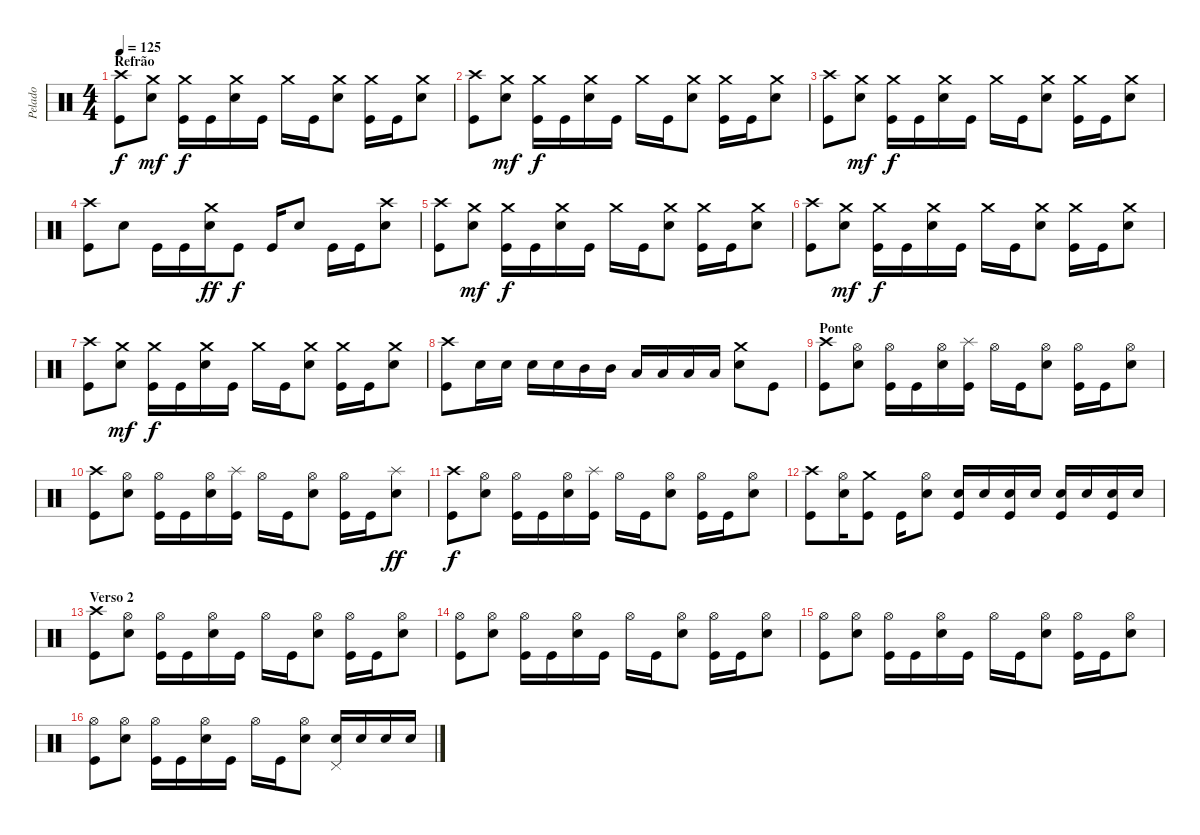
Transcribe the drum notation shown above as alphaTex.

\track ("Pelado" "Pelado") {instrument percussion}
\staff {score}
\articulation defaults
\ts (4 4)
\section ("" "Refrão")
\tempo 125
\clef neutral
\ks c
("Crash high (hit)" "Kick (hit)").8{dy f} ("Crash medium (hit)" "Electric Snare (hit)").8{dy mf} ("Crash medium (hit)" "Kick (hit)").16{dy f} "Kick (hit)".16 ("Crash medium (hit)" "Electric Snare (hit)").16 "Kick (hit)".16 "Crash medium (hit)".16 "Kick (hit)".16 ("Crash medium (hit)" "Electric Snare (hit)").8 ("Crash medium (hit)" "Kick (hit)").16 "Kick (hit)".16 ("Crash medium (hit)" "Electric Snare (hit)").8 |
("Crash high (hit)" "Kick (hit)").8 ("Crash medium (hit)" "Electric Snare (hit)").8{dy mf} ("Crash medium (hit)" "Kick (hit)").16{dy f} "Kick (hit)".16 ("Crash medium (hit)" "Electric Snare (hit)").16 "Kick (hit)".16 "Crash medium (hit)".16 "Kick (hit)".16 ("Crash medium (hit)" "Electric Snare (hit)").8 ("Crash medium (hit)" "Kick (hit)").16 "Kick (hit)".16 ("Crash medium (hit)" "Electric Snare (hit)").8 |
("Crash high (hit)" "Kick (hit)").8 ("Crash medium (hit)" "Electric Snare (hit)").8{dy mf} ("Crash medium (hit)" "Kick (hit)").16{dy f} "Kick (hit)".16 ("Crash medium (hit)" "Electric Snare (hit)").16 "Kick (hit)".16 "Crash medium (hit)".16 "Kick (hit)".16 ("Crash medium (hit)" "Electric Snare (hit)").8 ("Crash medium (hit)" "Kick (hit)").16 "Kick (hit)".16 ("Crash medium (hit)" "Electric Snare (hit)").8 |
("Crash high (hit)" "Kick (hit)").8 "Electric Snare (hit)".8 "Kick (hit)".16 "Kick (hit)".16 ("Crash medium (hit)" "Electric Snare (hit)").16{dy ff} "Kick (hit)".8{dy f} "Kick (hit)".16 "Electric Snare (hit)".8 "Kick (hit)".16 "Kick (hit)".16 ("Crash high (hit)" "Electric Snare (hit)").8 |
("Crash high (hit)" "Kick (hit)").8 ("Crash medium (hit)" "Electric Snare (hit)").8{dy mf} ("Crash medium (hit)" "Kick (hit)").16{dy f} "Kick (hit)".16 ("Crash medium (hit)" "Electric Snare (hit)").16 "Kick (hit)".16 "Crash medium (hit)".16 "Kick (hit)".16 ("Crash medium (hit)" "Electric Snare (hit)").8 ("Crash medium (hit)" "Kick (hit)").16 "Kick (hit)".16 ("Crash medium (hit)" "Electric Snare (hit)").8 |
("Crash high (hit)" "Kick (hit)").8 ("Crash medium (hit)" "Electric Snare (hit)").8{dy mf} ("Crash medium (hit)" "Kick (hit)").16{dy f} "Kick (hit)".16 ("Crash medium (hit)" "Electric Snare (hit)").16 "Kick (hit)".16 "Crash medium (hit)".16 "Kick (hit)".16 ("Crash medium (hit)" "Electric Snare (hit)").8 ("Crash medium (hit)" "Kick (hit)").16 "Kick (hit)".16 ("Crash medium (hit)" "Electric Snare (hit)").8 |
("Crash high (hit)" "Kick (hit)").8 ("Crash medium (hit)" "Electric Snare (hit)").8{dy mf} ("Crash medium (hit)" "Kick (hit)").16{dy f} "Kick (hit)".16 ("Crash medium (hit)" "Electric Snare (hit)").16 "Kick (hit)".16 "Crash medium (hit)".16 "Kick (hit)".16 ("Crash medium (hit)" "Electric Snare (hit)").8 ("Crash medium (hit)" "Kick (hit)").16 "Kick (hit)".16 ("Crash medium (hit)" "Electric Snare (hit)").8 |
("Crash high (hit)" "Kick (hit)").8 "Electric Snare (hit)".16 "Electric Snare (hit)".16 "Electric Snare (hit)".16 "Electric Snare (hit)".16 "Mid Tom (hit)".16 "Mid Tom (hit)".16 "Low Tom (hit)".16 "Low Tom (hit)".16 "Low Tom (hit)".16 "Low Tom (hit)".16 ("Crash medium (hit)" "Electric Snare (hit)").8 "Kick (hit)".8 |
\section ("" "Ponte")
("Crash high (hit)" "Kick (hit)").8 ("Hi-Hat (open)" "Electric Snare (hit)").8 ("Hi-Hat (open)" "Kick (hit)").16 "Kick (hit)".16 ("Hi-Hat (open)" "Electric Snare (hit)").16 ("Splash (hit)" "Kick (hit)").16 "Hi-Hat (open)".16 "Kick (hit)".16 ("Hi-Hat (open)" "Electric Snare (hit)").8 ("Hi-Hat (open)" "Kick (hit)").16 "Kick (hit)".16 ("Hi-Hat (open)" "Electric Snare (hit)").8 |
("Crash high (hit)" "Kick (hit)").8 ("Hi-Hat (open)" "Electric Snare (hit)").8 ("Hi-Hat (open)" "Kick (hit)").16 "Kick (hit)".16 ("Hi-Hat (open)" "Electric Snare (hit)").16 ("Splash (hit)" "Kick (hit)").16 "Hi-Hat (open)".16 "Kick (hit)".16 ("Hi-Hat (open)" "Electric Snare (hit)").8 ("Hi-Hat (open)" "Kick (hit)").16 "Kick (hit)".16 ("Splash (hit)" "Electric Snare (hit)").8{dy ff} |
("Crash high (hit)" "Kick (hit)").8{dy f} ("Hi-Hat (open)" "Electric Snare (hit)").8 ("Hi-Hat (open)" "Kick (hit)").16 "Kick (hit)".16 ("Hi-Hat (open)" "Electric Snare (hit)").16 ("Splash (hit)" "Kick (hit)").16 "Hi-Hat (open)".16 "Kick (hit)".16 ("Hi-Hat (open)" "Electric Snare (hit)").8 ("Hi-Hat (open)" "Kick (hit)").16 "Kick (hit)".16 ("Hi-Hat (open)" "Electric Snare (hit)").8 |
("Crash high (hit)" "Kick (hit)").8 ("Hi-Hat (open)" "Electric Snare (hit)").16 ("Crash medium (hit)" "Kick (hit)").8 "Kick (hit)".16 ("Hi-Hat (open)" "Electric Snare (hit)").8 ("Electric Snare (hit)" "Kick (hit)").16 "Electric Snare (hit)".16 ("Electric Snare (hit)" "Kick (hit)").16 "Electric Snare (hit)".16 ("Electric Snare (hit)" "Kick (hit)").16 "Electric Snare (hit)".16 ("Electric Snare (hit)" "Kick (hit)").16 "Electric Snare (hit)".16 |
\section ("" "Verso 2")
("Crash high (hit)" "Kick (hit)").8 ("Hi-Hat (open)" "Electric Snare (hit)").8 ("Hi-Hat (open)" "Kick (hit)").16 "Kick (hit)".16 ("Hi-Hat (open)" "Electric Snare (hit)").16 "Kick (hit)".16 "Hi-Hat (open)".16 "Kick (hit)".16 ("Hi-Hat (open)" "Electric Snare (hit)").8 ("Hi-Hat (open)" "Kick (hit)").16 "Kick (hit)".16 ("Hi-Hat (open)" "Electric Snare (hit)").8 |
("Hi-Hat (open)" "Kick (hit)").8 ("Hi-Hat (open)" "Electric Snare (hit)").8 ("Hi-Hat (open)" "Kick (hit)").16 "Kick (hit)".16 ("Hi-Hat (open)" "Electric Snare (hit)").16 "Kick (hit)".16 "Hi-Hat (open)".16 "Kick (hit)".16 ("Hi-Hat (open)" "Electric Snare (hit)").8 ("Hi-Hat (open)" "Kick (hit)").16 "Kick (hit)".16 ("Hi-Hat (open)" "Electric Snare (hit)").8 |
("Hi-Hat (open)" "Kick (hit)").8 ("Hi-Hat (open)" "Electric Snare (hit)").8 ("Hi-Hat (open)" "Kick (hit)").16 "Kick (hit)".16 ("Hi-Hat (open)" "Electric Snare (hit)").16 "Kick (hit)".16 "Hi-Hat (open)".16 "Kick (hit)".16 ("Hi-Hat (open)" "Electric Snare (hit)").8 ("Hi-Hat (open)" "Kick (hit)").16 "Kick (hit)".16 ("Hi-Hat (open)" "Electric Snare (hit)").8 |
("Hi-Hat (open)" "Kick (hit)").8 ("Hi-Hat (open)" "Electric Snare (hit)").8 ("Hi-Hat (open)" "Kick (hit)").16 "Kick (hit)".16 ("Hi-Hat (open)" "Electric Snare (hit)").16 "Kick (hit)".16 "Hi-Hat (open)".16 "Kick (hit)".16 ("Hi-Hat (open)" "Electric Snare (hit)").8 ("Electric Snare (hit)" "Pedal Hi-Hat (hit)").16 "Electric Snare (hit)".16 "Electric Snare (hit)".16 "Electric Snare (hit)".16
